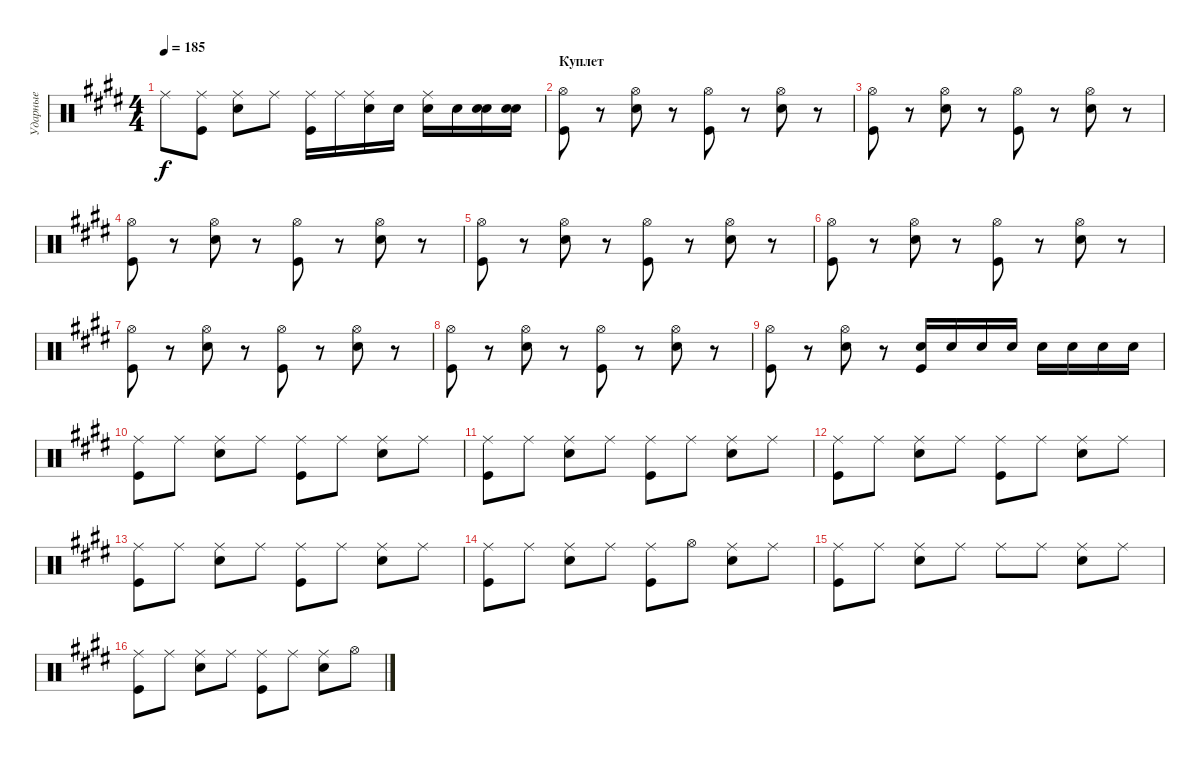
\track ("Ударные" "Ударные") {instrument percussion}
\staff {score}
\articulation defaults
\ts (4 4)
\tempo 185
\clef neutral
\ks c#minor "Ride (middle)".8{dy f}
("Ride (middle)" "Kick (hit)").8 ("Ride (middle)" "Electric Snare (hit)").8 "Ride (middle)".8 ("Kick (hit)" "Ride (middle)").16 "Ride (middle)".16 ("Electric Snare (hit)" "Ride (middle)").16 "Electric Snare (hit)".16 ("Electric Snare (hit)" "Ride (middle)").16 "Electric Snare (hit)".16 ("Electric Snare (hit)" "Electric Snare (hit)").16 ("Electric Snare (hit)" "Electric Snare (hit)").16 |
\section ("" "Куплет")
("Hi-Hat (open)" "Kick (hit)").8 r.8 ("Hi-Hat (open)" "Electric Snare (hit)").8 r.8 ("Hi-Hat (open)" "Kick (hit)").8 r.8 ("Hi-Hat (open)" "Electric Snare (hit)").8 r.8 |
("Hi-Hat (open)" "Kick (hit)").8 r.8 ("Hi-Hat (open)" "Electric Snare (hit)").8 r.8 ("Hi-Hat (open)" "Kick (hit)").8 r.8 ("Hi-Hat (open)" "Electric Snare (hit)").8 r.8 |
("Hi-Hat (open)" "Kick (hit)").8 r.8 ("Hi-Hat (open)" "Electric Snare (hit)").8 r.8 ("Hi-Hat (open)" "Kick (hit)").8 r.8 ("Hi-Hat (open)" "Electric Snare (hit)").8 r.8 |
("Hi-Hat (open)" "Kick (hit)").8 r.8 ("Hi-Hat (open)" "Electric Snare (hit)").8 r.8 ("Hi-Hat (open)" "Kick (hit)").8 r.8 ("Hi-Hat (open)" "Electric Snare (hit)").8 r.8 |
("Hi-Hat (open)" "Kick (hit)").8 r.8 ("Hi-Hat (open)" "Electric Snare (hit)").8 r.8 ("Hi-Hat (open)" "Kick (hit)").8 r.8 ("Hi-Hat (open)" "Electric Snare (hit)").8 r.8 |
("Kick (hit)" "Hi-Hat (open)").8 r.8 ("Electric Snare (hit)" "Hi-Hat (open)").8 r.8 ("Kick (hit)" "Hi-Hat (open)").8 r.8 ("Hi-Hat (open)" "Electric Snare (hit)").8 r.8 |
("Kick (hit)" "Hi-Hat (open)").8 r.8 ("Hi-Hat (open)" "Electric Snare (hit)").8 r.8 ("Kick (hit)" "Hi-Hat (open)").8 r.8 ("Electric Snare (hit)" "Hi-Hat (open)").8 r.8 |
("Hi-Hat (open)" "Kick (hit)").8 r.8 ("Hi-Hat (open)" "Electric Snare (hit)").8 r.8 ("Electric Snare (hit)" "Kick (hit)").16 "Electric Snare (hit)".16 "Electric Snare (hit)".16 "Electric Snare (hit)".16 "Electric Snare (hit)".16 "Electric Snare (hit)".16 "Electric Snare (hit)".16 "Electric Snare (hit)".16 |
("Ride (middle)" "Kick (hit)").8 "Ride (middle)".8 ("Electric Snare (hit)" "Ride (middle)").8 "Ride (middle)".8 ("Ride (middle)" "Kick (hit)").8 "Ride (middle)".8 ("Ride (middle)" "Electric Snare (hit)").8 "Ride (middle)".8 |
("Ride (middle)" "Kick (hit)").8 "Ride (middle)".8 ("Electric Snare (hit)" "Ride (middle)").8 "Ride (middle)".8 ("Ride (middle)" "Kick (hit)").8 "Ride (middle)".8 ("Ride (middle)" "Electric Snare (hit)").8 "Ride (middle)".8 |
("Ride (middle)" "Kick (hit)").8 "Ride (middle)".8 ("Electric Snare (hit)" "Ride (middle)").8 "Ride (middle)".8 ("Ride (middle)" "Kick (hit)").8 "Ride (middle)".8 ("Ride (middle)" "Electric Snare (hit)").8 "Ride (middle)".8 |
("Ride (middle)" "Kick (hit)").8 "Ride (middle)".8 ("Electric Snare (hit)" "Ride (middle)").8 "Ride (middle)".8 ("Ride (middle)" "Kick (hit)").8 "Ride (middle)".8 ("Ride (middle)" "Electric Snare (hit)").8 "Ride (middle)".8 |
("Ride (middle)" "Kick (hit)").8 "Ride (middle)".8 ("Ride (middle)" "Electric Snare (hit)").8 "Ride (middle)".8 ("Ride (middle)" "Kick (hit)").8 "Hi-Hat (open)".8 ("Ride (middle)" "Electric Snare (hit)").8 "Ride (middle)".8 |
("Ride (middle)" "Kick (hit)").8 "Ride (middle)".8 ("Ride (middle)" "Electric Snare (hit)").8 "Ride (middle)".8 "Ride (middle)".8 "Ride (middle)".8 ("Ride (middle)" "Electric Snare (hit)").8 "Ride (middle)".8 |
("Ride (middle)" "Kick (hit)").8 "Ride (middle)".8 ("Ride (middle)" "Electric Snare (hit)").8 "Ride (middle)".8 ("Ride (middle)" "Kick (hit)").8 "Ride (middle)".8 ("Ride (middle)" "Electric Snare (hit)").8 "Hi-Hat (open)".8
